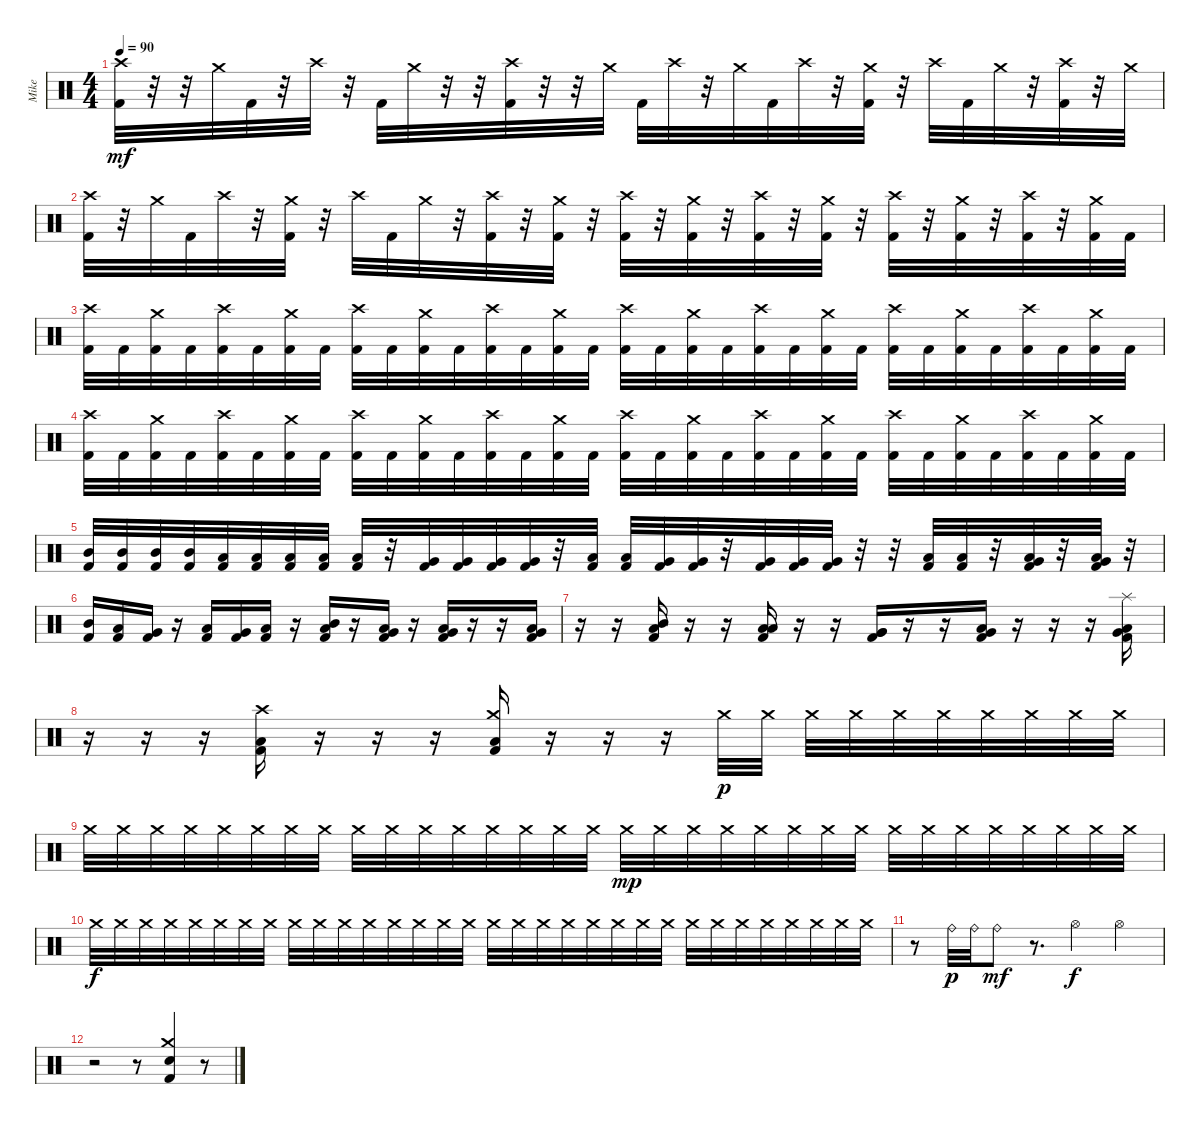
\track ("Mike" "Mike") {instrument percussion}
\staff {score}
\articulation defaults
\ts (4 4)
\tempo 90
\clef neutral
\ks c
("Crash high (hit)" "Kick (hit) 2").32{dy mf} r.32 r.32 "Crash medium (hit)".32 "Kick (hit) 2".32 r.32 "Crash high (hit)".32 r.32 "Kick (hit) 2".32 "Crash medium (hit)".32 r.32 r.32 ("Crash high (hit)" "Kick (hit) 2").32 r.32 r.32 "Crash medium (hit)".32 "Kick (hit) 2".32 "Crash high (hit)".32 r.32 "Crash medium (hit)".32 "Kick (hit) 2".32 "Crash high (hit)".32 r.32 ("Crash medium (hit)" "Kick (hit) 2").32 r.32 "Crash high (hit)".32 "Kick (hit) 2".32 "Crash medium (hit)".32 r.32 ("Crash high (hit)" "Kick (hit) 2").32 r.32 "Crash medium (hit)".32 |
("Crash high (hit)" "Kick (hit) 2").32 r.32 "Crash medium (hit)".32 "Kick (hit) 2".32 "Crash high (hit)".32 r.32 ("Crash medium (hit)" "Kick (hit) 2").32 r.32 "Crash high (hit)".32 "Kick (hit) 2".32 "Crash medium (hit)".32 r.32 ("Crash high (hit)" "Kick (hit) 2").32 r.32 ("Crash medium (hit)" "Kick (hit) 2").32 r.32 ("Crash high (hit)" "Kick (hit) 2").32 r.32 ("Crash medium (hit)" "Kick (hit) 2").32 r.32 ("Crash high (hit)" "Kick (hit) 2").32 r.32 ("Crash medium (hit)" "Kick (hit) 2").32 r.32 ("Crash high (hit)" "Kick (hit) 2").32 r.32 ("Crash medium (hit)" "Kick (hit) 2").32 r.32 ("Crash high (hit)" "Kick (hit) 2").32 r.32 ("Crash medium (hit)" "Kick (hit) 2").32 "Kick (hit) 2".32 |
("Crash high (hit)" "Kick (hit) 2").32 "Kick (hit) 2".32 ("Crash medium (hit)" "Kick (hit) 2").32 "Kick (hit) 2".32 ("Crash high (hit)" "Kick (hit) 2").32 "Kick (hit) 2".32 ("Crash medium (hit)" "Kick (hit) 2").32 "Kick (hit) 2".32 ("Crash high (hit)" "Kick (hit) 2").32 "Kick (hit) 2".32 ("Crash medium (hit)" "Kick (hit) 2").32 "Kick (hit) 2".32 ("Crash high (hit)" "Kick (hit) 2").32 "Kick (hit) 2".32 ("Crash medium (hit)" "Kick (hit) 2").32 "Kick (hit) 2".32 ("Crash high (hit)" "Kick (hit) 2").32 "Kick (hit) 2".32 ("Crash medium (hit)" "Kick (hit) 2").32 "Kick (hit) 2".32 ("Crash high (hit)" "Kick (hit) 2").32 "Kick (hit) 2".32 ("Crash medium (hit)" "Kick (hit) 2").32 "Kick (hit) 2".32 ("Crash high (hit)" "Kick (hit) 2").32 "Kick (hit) 2".32 ("Crash medium (hit)" "Kick (hit) 2").32 "Kick (hit) 2".32 ("Crash high (hit)" "Kick (hit) 2").32 "Kick (hit) 2".32 ("Crash medium (hit)" "Kick (hit) 2").32 "Kick (hit) 2".32 |
("Crash high (hit)" "Kick (hit) 2").32 "Kick (hit) 2".32 ("Crash medium (hit)" "Kick (hit) 2").32 "Kick (hit) 2".32 ("Crash high (hit)" "Kick (hit) 2").32 "Kick (hit) 2".32 ("Crash medium (hit)" "Kick (hit) 2").32 "Kick (hit) 2".32 ("Crash high (hit)" "Kick (hit) 2").32 "Kick (hit) 2".32 ("Crash medium (hit)" "Kick (hit) 2").32 "Kick (hit) 2".32 ("Crash high (hit)" "Kick (hit) 2").32 "Kick (hit) 2".32 ("Crash medium (hit)" "Kick (hit) 2").32 "Kick (hit) 2".32 ("Crash high (hit)" "Kick (hit) 2").32 "Kick (hit) 2".32 ("Crash medium (hit)" "Kick (hit) 2").32 "Kick (hit) 2".32 ("Crash high (hit)" "Kick (hit) 2").32 "Kick (hit) 2".32 ("Crash medium (hit)" "Kick (hit) 2").32 "Kick (hit) 2".32 ("Crash high (hit)" "Kick (hit) 2").32 "Kick (hit) 2".32 ("Crash medium (hit)" "Kick (hit) 2").32 "Kick (hit) 2".32 ("Crash high (hit)" "Kick (hit) 2").32 "Kick (hit) 2".32 ("Crash medium (hit)" "Kick (hit) 2").32 "Kick (hit) 2".32 |
("Mid Tom (hit)" "Kick (hit) 2").32 ("Mid Tom (hit)" "Kick (hit) 2").32 ("Mid Tom (hit)" "Kick (hit) 2").32 ("Mid Tom (hit)" "Kick (hit) 2").32 ("Low Tom (hit)" "Kick (hit) 2").32 ("Low Tom (hit)" "Kick (hit) 2").32 ("Low Tom (hit)" "Kick (hit) 2").32 ("Low Tom (hit)" "Kick (hit) 2").32 ("Low Tom (hit)" "Kick (hit) 2").32 r.32 ("Very Low Tom (hit)" "Kick (hit) 2").32 ("Very Low Tom (hit)" "Kick (hit) 2").32 ("Very Low Tom (hit)" "Kick (hit) 2").32 ("Very Low Tom (hit)" "Kick (hit) 2").32 r.32 ("Low Tom (hit)" "Kick (hit) 2").32 ("Low Tom (hit)" "Kick (hit) 2").32 ("Very Low Tom (hit)" "Kick (hit) 2").32 ("Very Low Tom (hit)" "Kick (hit) 2").32 r.32 ("Very Low Tom (hit)" "Kick (hit) 2").32 ("Very Low Tom (hit)" "Kick (hit) 2").32 ("Very Low Tom (hit)" "Kick (hit) 2").32 r.32 r.32 ("Low Floor Tom (hit)" "Kick (hit) 2").32 ("Low Floor Tom (hit)" "Kick (hit) 2").32 r.32 ("Very Low Tom (hit)" "Low Tom (hit)" "Kick (hit) 2").32 r.32 ("Very Low Tom (hit)" "Low Tom (hit)" "Kick (hit) 2").32 r.32 |
("Mid Tom (hit)" "Kick (hit) 2").16 ("Low Tom (hit)" "Kick (hit) 2").16 ("Very Low Tom (hit)" "Kick (hit) 2").16 r.16 ("Low Tom (hit)" "Kick (hit) 2").16 ("Very Low Tom (hit)" "Kick (hit) 2").16 ("Low Floor Tom (hit)" "Kick (hit) 2").16 r.16 ("Mid Tom (hit)" "Low Tom (hit)" "Kick (hit) 2").16 r.16 ("Low Tom (hit)" "Very Low Tom (hit)" "Kick (hit) 2").16 r.16 ("Very Low Tom (hit)" "Low Floor Tom (hit)" "Kick (hit) 2").16 r.16 r.16 ("Low Tom (hit)" "Very Low Tom (hit)" "Kick (hit) 2").16 |
r.16 r.16 ("Mid Tom (hit)" "Low Tom (hit)" "Kick (hit) 2").16 r.16 r.16 ("Low Floor Tom (hit)" "Low Floor Tom (hit)" "Kick (hit) 2").16 r.16 r.16 ("Very Low Tom (hit)" "Very Low Tom (hit)" "Kick (hit) 2").16 r.16 r.16 ("Very Low Tom (hit)" "Low Floor Tom (hit)" "Kick (hit) 2").16 r.16 r.16 r.16 ("Splash (hit)" "Low Tom (hit)" "Very Low Tom (hit)" "Kick (hit) 2").16 |
r.16 r.16 r.16 ("Crash high (hit)" "Low Floor Tom (hit)" "Kick (hit) 2").16 r.16 r.16 r.16 ("Crash medium (hit)" "Low Floor Tom (hit)" "Kick (hit) 2").16 r.16 r.16 r.16 "Crash medium (hit)".32{dy p} "Crash medium (hit)".32 "Crash medium (hit)".32 "Crash medium (hit)".32 "Crash medium (hit)".32 "Crash medium (hit)".32 "Crash medium (hit)".32 "Crash medium (hit)".32 "Crash medium (hit)".32 "Crash medium (hit)".32 |
"Crash medium (hit)".32 "Crash medium (hit)".32 "Crash medium (hit)".32 "Crash medium (hit)".32 "Crash medium (hit)".32 "Crash medium (hit)".32 "Crash medium (hit)".32 "Crash medium (hit)".32 "Crash medium (hit)".32 "Crash medium (hit)".32 "Crash medium (hit)".32 "Crash medium (hit)".32 "Crash medium (hit)".32 "Crash medium (hit)".32 "Crash medium (hit)".32 "Crash medium (hit)".32 "Crash medium (hit)".32{dy mp} "Crash medium (hit)".32 "Crash medium (hit)".32 "Crash medium (hit)".32 "Crash medium (hit)".32 "Crash medium (hit)".32 "Crash medium (hit)".32 "Crash medium (hit)".32 "Crash medium (hit)".32 "Crash medium (hit)".32 "Crash medium (hit)".32 "Crash medium (hit)".32 "Crash medium (hit)".32 "Crash medium (hit)".32 "Crash medium (hit)".32 "Crash medium (hit)".32 |
"Crash medium (hit)".32{dy f} "Crash medium (hit)".32 "Crash medium (hit)".32 "Crash medium (hit)".32 "Crash medium (hit)".32 "Crash medium (hit)".32 "Crash medium (hit)".32 "Crash medium (hit)".32 "Crash medium (hit)".32 "Crash medium (hit)".32 "Crash medium (hit)".32 "Crash medium (hit)".32 "Crash medium (hit)".32 "Crash medium (hit)".32 "Crash medium (hit)".32 "Crash medium (hit)".32 "Crash medium (hit)".32 "Crash medium (hit)".32 "Crash medium (hit)".32 "Crash medium (hit)".32 "Crash medium (hit)".32 "Crash medium (hit)".32 "Crash medium (hit)".32 "Crash medium (hit)".32 "Crash medium (hit)".32 "Crash medium (hit)".32 "Crash medium (hit)".32 "Crash medium (hit)".32 "Crash medium (hit)".32 "Crash medium (hit)".32 "Crash medium (hit)".32 "Crash medium (hit)".32 |
r.8 "Ride (bell)".32{dy p} "Ride (bell)".32 "Ride (bell)".8{dy mf} r.8{d} "Hi-Hat (open)".4{dy f} "Hi-Hat (open)".4 |
r.2 r.8 ("Crash medium (hit)" "Snare (hit) 2" "Kick (hit) 2").4 r.8
